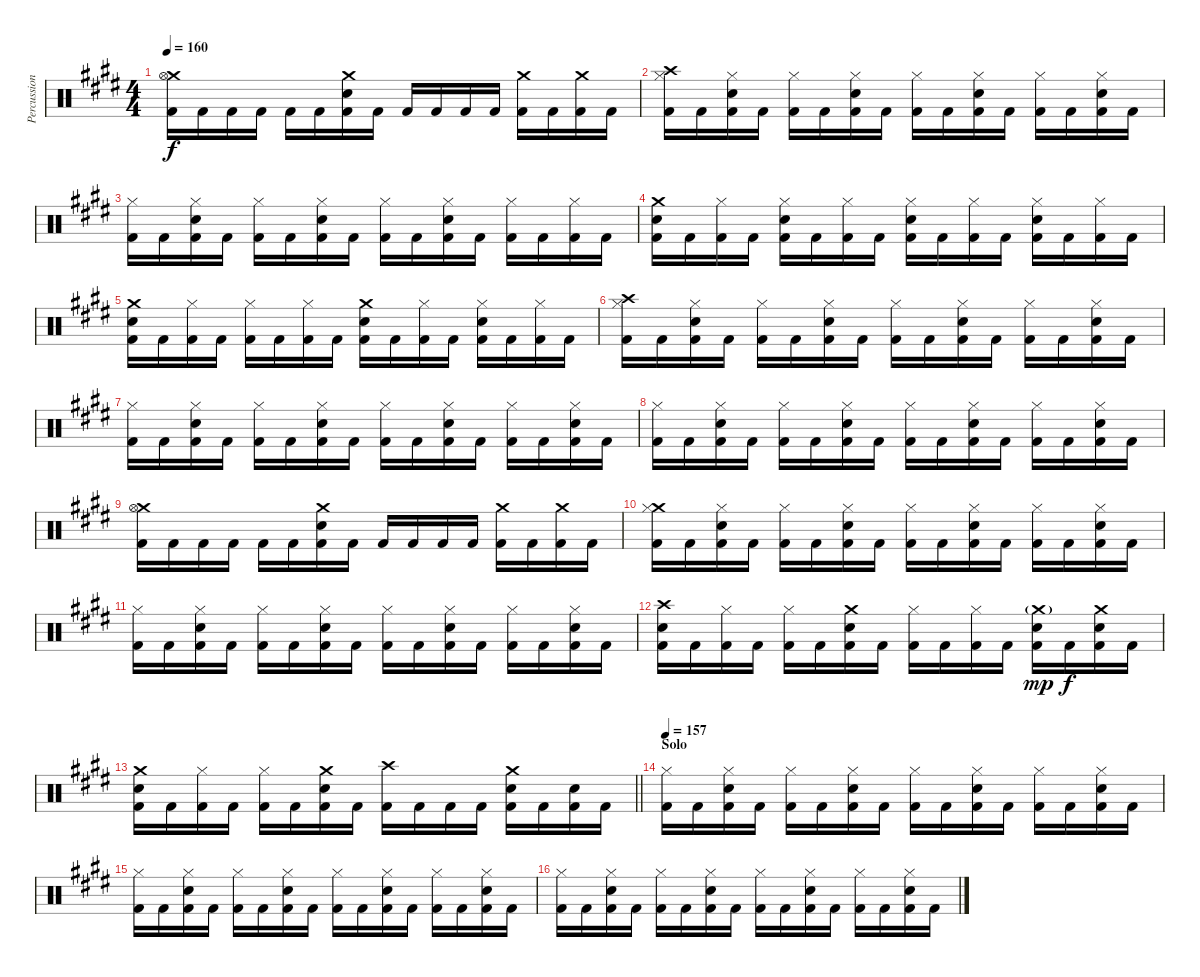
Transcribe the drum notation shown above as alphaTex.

\track ("Percussion (Thomen Stauch)" "Percussion") {instrument percussion}
\staff {score}
\articulation defaults
\ts (4 4)
\tempo 160
\clef neutral
\ks c#minor
("Crash medium (hit)" "Hi-Hat (open)" "Kick (hit) 2").16{dy f} "Kick (hit) 2".16 "Kick (hit) 2".16 "Kick (hit) 2".16 "Kick (hit) 2".16 "Kick (hit) 2".16 ("Crash medium (hit)" "Snare (hit) 2" "Kick (hit) 2").16 "Kick (hit) 2".16 "Kick (hit) 2".16 "Kick (hit) 2".16 "Kick (hit) 2".16 "Kick (hit) 2".16 ("Crash medium (hit)" "Kick (hit) 2").16 "Kick (hit) 2".16 ("Crash medium (hit)" "Kick (hit) 2").16 "Kick (hit) 2".16 |
("Crash high (hit)" "Hi-Hat (closed)" "Kick (hit) 2").16 "Kick (hit) 2".16 ("Hi-Hat (closed)" "Snare (hit) 2" "Kick (hit) 2").16 "Kick (hit) 2".16 ("Hi-Hat (closed)" "Kick (hit) 2").16 "Kick (hit) 2".16 ("Hi-Hat (closed)" "Snare (hit) 2" "Kick (hit) 2").16 "Kick (hit) 2".16 ("Hi-Hat (closed)" "Kick (hit) 2").16 "Kick (hit) 2".16 ("Hi-Hat (closed)" "Snare (hit) 2" "Kick (hit) 2").16 "Kick (hit) 2".16 ("Hi-Hat (closed)" "Kick (hit) 2").16 "Kick (hit) 2".16 ("Hi-Hat (closed)" "Snare (hit) 2" "Kick (hit) 2").16 "Kick (hit) 2".16 |
("Hi-Hat (closed)" "Kick (hit) 2").16 "Kick (hit) 2".16 ("Hi-Hat (closed)" "Snare (hit) 2" "Kick (hit) 2").16 "Kick (hit) 2".16 ("Hi-Hat (closed)" "Kick (hit) 2").16 "Kick (hit) 2".16 ("Hi-Hat (closed)" "Snare (hit) 2" "Kick (hit) 2").16 "Kick (hit) 2".16 ("Hi-Hat (closed)" "Kick (hit) 2").16 "Kick (hit) 2".16 ("Hi-Hat (closed)" "Snare (hit) 2" "Kick (hit) 2").16 "Kick (hit) 2".16 ("Hi-Hat (closed)" "Kick (hit) 2").16 "Kick (hit) 2".16 ("Hi-Hat (closed)" "Kick (hit) 2").16 "Kick (hit) 2".16 |
("Crash medium (hit)" "Snare (hit) 2" "Kick (hit) 2").16 "Kick (hit) 2".16 ("Hi-Hat (closed)" "Kick (hit) 2").16 "Kick (hit) 2".16 ("Hi-Hat (closed)" "Snare (hit) 2" "Kick (hit) 2").16 "Kick (hit) 2".16 ("Hi-Hat (closed)" "Kick (hit) 2").16 "Kick (hit) 2".16 ("Hi-Hat (closed)" "Snare (hit) 2" "Kick (hit) 2").16 "Kick (hit) 2".16 ("Hi-Hat (closed)" "Kick (hit) 2").16 "Kick (hit) 2".16 ("Hi-Hat (closed)" "Snare (hit) 2" "Kick (hit) 2").16 "Kick (hit) 2".16 ("Hi-Hat (closed)" "Kick (hit) 2").16 "Kick (hit) 2".16 |
("Crash medium (hit)" "Snare (hit) 2" "Kick (hit) 2").16 "Kick (hit) 2".16 ("Hi-Hat (closed)" "Kick (hit) 2").16 "Kick (hit) 2".16 ("Hi-Hat (closed)" "Kick (hit) 2").16 "Kick (hit) 2".16 ("Hi-Hat (closed)" "Kick (hit) 2").16 "Kick (hit) 2".16 ("Crash medium (hit)" "Snare (hit) 2" "Kick (hit) 2").16 "Kick (hit) 2".16 ("Hi-Hat (closed)" "Kick (hit) 2").16 "Kick (hit) 2".16 ("Hi-Hat (closed)" "Snare (hit) 2" "Kick (hit) 2").16 "Kick (hit) 2".16 ("Hi-Hat (closed)" "Kick (hit) 2").16 "Kick (hit) 2".16 |
("Crash high (hit)" "Hi-Hat (closed)" "Kick (hit) 2").16 "Kick (hit) 2".16 ("Hi-Hat (closed)" "Snare (hit) 2" "Kick (hit) 2").16 "Kick (hit) 2".16 ("Hi-Hat (closed)" "Kick (hit) 2").16 "Kick (hit) 2".16 ("Hi-Hat (closed)" "Snare (hit) 2" "Kick (hit) 2").16 "Kick (hit) 2".16 ("Hi-Hat (closed)" "Kick (hit) 2").16 "Kick (hit) 2".16 ("Hi-Hat (closed)" "Snare (hit) 2" "Kick (hit) 2").16 "Kick (hit) 2".16 ("Hi-Hat (closed)" "Kick (hit) 2").16 "Kick (hit) 2".16 ("Hi-Hat (closed)" "Snare (hit) 2" "Kick (hit) 2").16 "Kick (hit) 2".16 |
("Hi-Hat (closed)" "Kick (hit) 2").16 "Kick (hit) 2".16 ("Hi-Hat (closed)" "Snare (hit) 2" "Kick (hit) 2").16 "Kick (hit) 2".16 ("Hi-Hat (closed)" "Kick (hit) 2").16 "Kick (hit) 2".16 ("Hi-Hat (closed)" "Snare (hit) 2" "Kick (hit) 2").16 "Kick (hit) 2".16 ("Hi-Hat (closed)" "Kick (hit) 2").16 "Kick (hit) 2".16 ("Hi-Hat (closed)" "Snare (hit) 2" "Kick (hit) 2").16 "Kick (hit) 2".16 ("Hi-Hat (closed)" "Kick (hit) 2").16 "Kick (hit) 2".16 ("Hi-Hat (closed)" "Snare (hit) 2" "Kick (hit) 2").16 "Kick (hit) 2".16 |
("Hi-Hat (closed)" "Kick (hit) 2").16 "Kick (hit) 2".16 ("Hi-Hat (closed)" "Snare (hit) 2" "Kick (hit) 2").16 "Kick (hit) 2".16 ("Hi-Hat (closed)" "Kick (hit) 2").16 "Kick (hit) 2".16 ("Hi-Hat (closed)" "Snare (hit) 2" "Kick (hit) 2").16 "Kick (hit) 2".16 ("Hi-Hat (closed)" "Kick (hit) 2").16 "Kick (hit) 2".16 ("Hi-Hat (closed)" "Snare (hit) 2" "Kick (hit) 2").16 "Kick (hit) 2".16 ("Hi-Hat (closed)" "Kick (hit) 2").16 "Kick (hit) 2".16 ("Hi-Hat (closed)" "Snare (hit) 2" "Kick (hit) 2").16 "Kick (hit) 2".16 |
("Crash medium (hit)" "Hi-Hat (open)" "Kick (hit) 2").16 "Kick (hit) 2".16 "Kick (hit) 2".16 "Kick (hit) 2".16 "Kick (hit) 2".16 "Kick (hit) 2".16 ("Crash medium (hit)" "Snare (hit) 2" "Kick (hit) 2").16 "Kick (hit) 2".16 "Kick (hit) 2".16 "Kick (hit) 2".16 "Kick (hit) 2".16 "Kick (hit) 2".16 ("Crash medium (hit)" "Kick (hit) 2").16 "Kick (hit) 2".16 ("Crash medium (hit)" "Kick (hit) 2").16 "Kick (hit) 2".16 |
("Crash medium (hit)" "Hi-Hat (closed)" "Kick (hit) 2").16 "Kick (hit) 2".16 ("Hi-Hat (closed)" "Snare (hit) 2" "Kick (hit) 2").16 "Kick (hit) 2".16 ("Hi-Hat (closed)" "Kick (hit) 2").16 "Kick (hit) 2".16 ("Hi-Hat (closed)" "Snare (hit) 2" "Kick (hit) 2").16 "Kick (hit) 2".16 ("Hi-Hat (closed)" "Kick (hit) 2").16 "Kick (hit) 2".16 ("Hi-Hat (closed)" "Snare (hit) 2" "Kick (hit) 2").16 "Kick (hit) 2".16 ("Hi-Hat (closed)" "Kick (hit) 2").16 "Kick (hit) 2".16 ("Hi-Hat (closed)" "Snare (hit) 2" "Kick (hit) 2").16 "Kick (hit) 2".16 |
("Hi-Hat (closed)" "Kick (hit) 2").16 "Kick (hit) 2".16 ("Hi-Hat (closed)" "Snare (hit) 2" "Kick (hit) 2").16 "Kick (hit) 2".16 ("Hi-Hat (closed)" "Kick (hit) 2").16 "Kick (hit) 2".16 ("Hi-Hat (closed)" "Snare (hit) 2" "Kick (hit) 2").16 "Kick (hit) 2".16 ("Hi-Hat (closed)" "Kick (hit) 2").16 "Kick (hit) 2".16 ("Hi-Hat (closed)" "Snare (hit) 2" "Kick (hit) 2").16 "Kick (hit) 2".16 ("Hi-Hat (closed)" "Kick (hit) 2").16 "Kick (hit) 2".16 ("Hi-Hat (closed)" "Snare (hit) 2" "Kick (hit) 2").16 "Kick (hit) 2".16 |
("Crash high (hit)" "Snare (hit) 2" "Kick (hit) 2").16 "Kick (hit) 2".16 ("Hi-Hat (closed)" "Kick (hit) 2").16 "Kick (hit) 2".16 ("Hi-Hat (closed)" "Kick (hit) 2").16 "Kick (hit) 2".16 ("Crash medium (hit)" "Snare (hit) 2" "Kick (hit) 2").16 "Kick (hit) 2".16 ("Hi-Hat (closed)" "Kick (hit) 2").16 "Kick (hit) 2".16 ("Hi-Hat (closed)" "Kick (hit) 2").16 "Kick (hit) 2".16 ("Crash medium (hit)"{g} "Snare (hit) 2" "Kick (hit) 2").16{dy mp} "Kick (hit) 2".16{dy f} ("Crash medium (hit)" "Snare (hit) 2" "Kick (hit) 2").16 "Kick (hit) 2".16 |
\barLineRight lightlight
("Crash medium (hit)" "Snare (hit) 2" "Kick (hit) 2").16 "Kick (hit) 2".16 ("Hi-Hat (closed)" "Kick (hit) 2").16 "Kick (hit) 2".16 ("Hi-Hat (closed)" "Kick (hit) 2").16 "Kick (hit) 2".16 ("Crash medium (hit)" "Snare (hit) 2" "Kick (hit) 2").16 "Kick (hit) 2".16 ("Crash high (hit)" "Kick (hit) 2").16 "Kick (hit) 2".16 "Kick (hit) 2".16 "Kick (hit) 2".16 ("Crash medium (hit)" "Snare (hit) 2" "Kick (hit) 2").16 "Kick (hit) 2".16 ("Snare (hit) 2" "Kick (hit) 2").16 "Kick (hit) 2".16 |
\section ("" "Solo")
\tempo 157
("Hi-Hat (closed)" "Kick (hit) 2").16 "Kick (hit) 2".16 ("Hi-Hat (closed)" "Snare (hit) 2" "Kick (hit) 2").16 "Kick (hit) 2".16 ("Hi-Hat (closed)" "Kick (hit) 2").16 "Kick (hit) 2".16 ("Hi-Hat (closed)" "Snare (hit) 2" "Kick (hit) 2").16 "Kick (hit) 2".16 ("Hi-Hat (closed)" "Kick (hit) 2").16 "Kick (hit) 2".16 ("Hi-Hat (closed)" "Snare (hit) 2" "Kick (hit) 2").16 "Kick (hit) 2".16 ("Hi-Hat (closed)" "Kick (hit) 2").16 "Kick (hit) 2".16 ("Hi-Hat (closed)" "Snare (hit) 2" "Kick (hit) 2").16 "Kick (hit) 2".16 |
("Hi-Hat (closed)" "Kick (hit) 2").16 "Kick (hit) 2".16 ("Hi-Hat (closed)" "Snare (hit) 2" "Kick (hit) 2").16 "Kick (hit) 2".16 ("Hi-Hat (closed)" "Kick (hit) 2").16 "Kick (hit) 2".16 ("Hi-Hat (closed)" "Snare (hit) 2" "Kick (hit) 2").16 "Kick (hit) 2".16 ("Hi-Hat (closed)" "Kick (hit) 2").16 "Kick (hit) 2".16 ("Hi-Hat (closed)" "Snare (hit) 2" "Kick (hit) 2").16 "Kick (hit) 2".16 ("Hi-Hat (closed)" "Kick (hit) 2").16 "Kick (hit) 2".16 ("Hi-Hat (closed)" "Snare (hit) 2" "Kick (hit) 2").16 "Kick (hit) 2".16 |
("Hi-Hat (closed)" "Kick (hit) 2").16 "Kick (hit) 2".16 ("Hi-Hat (closed)" "Snare (hit) 2" "Kick (hit) 2").16 "Kick (hit) 2".16 ("Hi-Hat (closed)" "Kick (hit) 2").16 "Kick (hit) 2".16 ("Hi-Hat (closed)" "Snare (hit) 2" "Kick (hit) 2").16 "Kick (hit) 2".16 ("Hi-Hat (closed)" "Kick (hit) 2").16 "Kick (hit) 2".16 ("Hi-Hat (closed)" "Snare (hit) 2" "Kick (hit) 2").16 "Kick (hit) 2".16 ("Hi-Hat (closed)" "Kick (hit) 2").16 "Kick (hit) 2".16 ("Hi-Hat (closed)" "Snare (hit) 2" "Kick (hit) 2").16 "Kick (hit) 2".16
